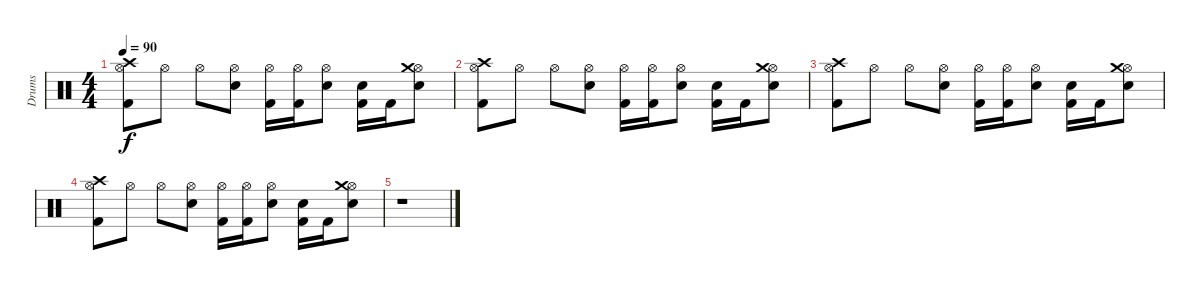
\track ("Drums" "Drums") {instrument percussion}
\staff {score}
\articulation defaults
\ts (4 4)
\tempo 90
\clef neutral
\ks c
("Hi-Hat (open)" "Kick (hit) 2" "Crash high (hit)").8{dy f} "Hi-Hat (open)".8 "Hi-Hat (open)".8 ("Hi-Hat (open)" "Electric Snare (hit)").8 ("Hi-Hat (open)" "Kick (hit) 2").16 ("Hi-Hat (open)" "Kick (hit) 2").16 ("Electric Snare (hit)" "Hi-Hat (open)").8 ("Electric Snare (hit)" "Kick (hit) 2").16 "Kick (hit) 2".16 ("Electric Snare (hit)" "Hi-Hat (open)" "Crash medium (hit)").8 |
("Hi-Hat (open)" "Kick (hit) 2" "Crash high (hit)").8 "Hi-Hat (open)".8 "Hi-Hat (open)".8 ("Hi-Hat (open)" "Electric Snare (hit)").8 ("Hi-Hat (open)" "Kick (hit) 2").16 ("Hi-Hat (open)" "Kick (hit) 2").16 ("Electric Snare (hit)" "Hi-Hat (open)").8 ("Electric Snare (hit)" "Kick (hit) 2").16 "Kick (hit) 2".16 ("Electric Snare (hit)" "Hi-Hat (open)" "Crash medium (hit)").8 |
("Hi-Hat (open)" "Kick (hit) 2" "Crash high (hit)").8 "Hi-Hat (open)".8 "Hi-Hat (open)".8 ("Hi-Hat (open)" "Electric Snare (hit)").8 ("Hi-Hat (open)" "Kick (hit) 2").16 ("Hi-Hat (open)" "Kick (hit) 2").16 ("Electric Snare (hit)" "Hi-Hat (open)").8 ("Electric Snare (hit)" "Kick (hit) 2").16 "Kick (hit) 2".16 ("Electric Snare (hit)" "Hi-Hat (open)" "Crash medium (hit)").8 |
("Hi-Hat (open)" "Kick (hit) 2" "Crash high (hit)").8 "Hi-Hat (open)".8 "Hi-Hat (open)".8 ("Hi-Hat (open)" "Electric Snare (hit)").8 ("Hi-Hat (open)" "Kick (hit) 2").16 ("Hi-Hat (open)" "Kick (hit) 2").16 ("Electric Snare (hit)" "Hi-Hat (open)").8 ("Electric Snare (hit)" "Kick (hit) 2").16 "Kick (hit) 2".16 ("Electric Snare (hit)" "Hi-Hat (open)" "Crash medium (hit)").8 |
r.1
